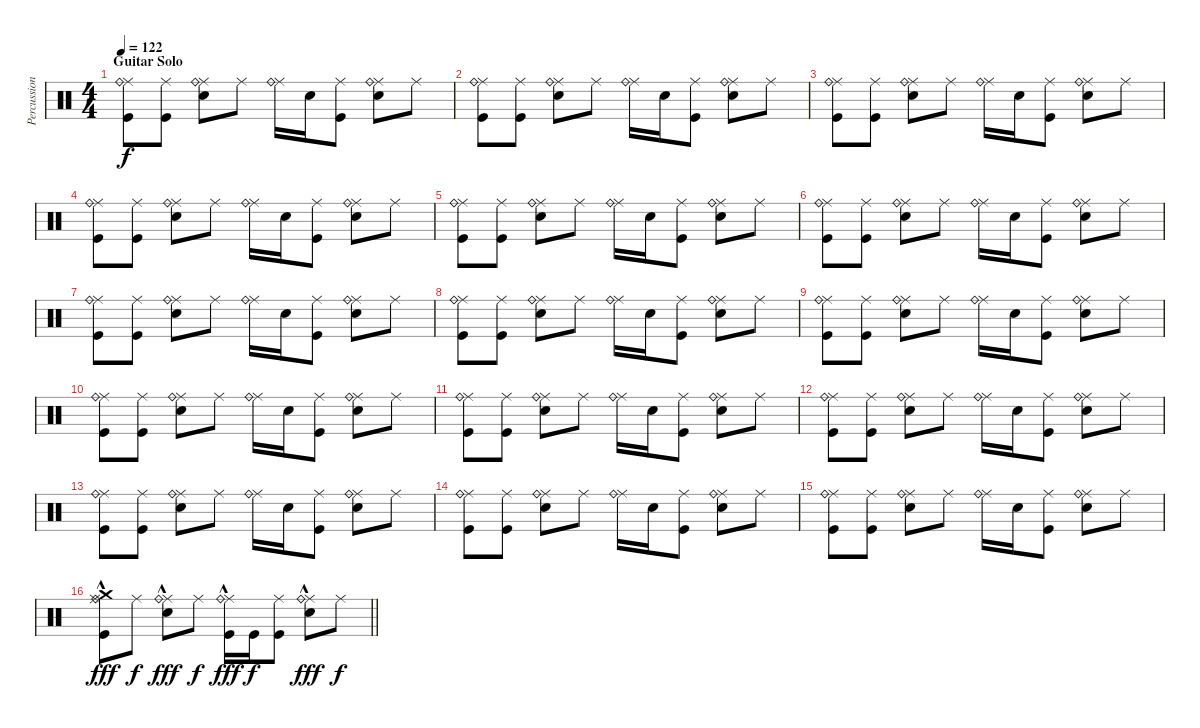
\track ("Percussion" "Percussion") {instrument percussion}
\staff {score}
\articulation defaults
\ts (4 4)
\section ("" "Guitar Solo ")
\tempo 122
\clef neutral
\ks c
("Ride (middle)" "Ride (bell)" "Kick (hit)").8{dy f} ("Ride (middle)" "Kick (hit)").8 ("Ride (middle)" "Ride (bell)" "Snare (hit) 2").8 "Ride (middle)".8 ("Ride (middle)" "Ride (bell)").16 "Snare (hit) 2".16 ("Ride (middle)" "Kick (hit)").8 ("Ride (middle)" "Ride (bell)" "Snare (hit) 2").8 "Ride (middle)".8 |
("Ride (middle)" "Ride (bell)" "Kick (hit)").8 ("Ride (middle)" "Kick (hit)").8 ("Ride (middle)" "Ride (bell)" "Snare (hit) 2").8 "Ride (middle)".8 ("Ride (middle)" "Ride (bell)").16 "Snare (hit) 2".16 ("Ride (middle)" "Kick (hit)").8 ("Ride (middle)" "Ride (bell)" "Snare (hit) 2").8 "Ride (middle)".8 |
("Ride (middle)" "Ride (bell)" "Kick (hit)").8 ("Ride (middle)" "Kick (hit)").8 ("Ride (middle)" "Ride (bell)" "Snare (hit) 2").8 "Ride (middle)".8 ("Ride (middle)" "Ride (bell)").16 "Snare (hit) 2".16 ("Ride (middle)" "Kick (hit)").8 ("Ride (middle)" "Ride (bell)" "Snare (hit) 2").8 "Ride (middle)".8 |
("Ride (middle)" "Ride (bell)" "Kick (hit)").8 ("Ride (middle)" "Kick (hit)").8 ("Ride (middle)" "Ride (bell)" "Snare (hit) 2").8 "Ride (middle)".8 ("Ride (middle)" "Ride (bell)").16 "Snare (hit) 2".16 ("Ride (middle)" "Kick (hit)").8 ("Ride (middle)" "Ride (bell)" "Snare (hit) 2").8 "Ride (middle)".8 |
("Ride (middle)" "Ride (bell)" "Kick (hit)").8 ("Ride (middle)" "Kick (hit)").8 ("Ride (middle)" "Ride (bell)" "Snare (hit) 2").8 "Ride (middle)".8 ("Ride (middle)" "Ride (bell)").16 "Snare (hit) 2".16 ("Ride (middle)" "Kick (hit)").8 ("Ride (middle)" "Ride (bell)" "Snare (hit) 2").8 "Ride (middle)".8 |
("Ride (middle)" "Ride (bell)" "Kick (hit)").8 ("Ride (middle)" "Kick (hit)").8 ("Ride (middle)" "Ride (bell)" "Snare (hit) 2").8 "Ride (middle)".8 ("Ride (middle)" "Ride (bell)").16 "Snare (hit) 2".16 ("Ride (middle)" "Kick (hit)").8 ("Ride (middle)" "Ride (bell)" "Snare (hit) 2").8 "Ride (middle)".8 |
("Ride (middle)" "Ride (bell)" "Kick (hit)").8 ("Ride (middle)" "Kick (hit)").8 ("Ride (middle)" "Ride (bell)" "Snare (hit) 2").8 "Ride (middle)".8 ("Ride (middle)" "Ride (bell)").16 "Snare (hit) 2".16 ("Ride (middle)" "Kick (hit)").8 ("Ride (middle)" "Ride (bell)" "Snare (hit) 2").8 "Ride (middle)".8 |
("Ride (middle)" "Ride (bell)" "Kick (hit)").8 ("Ride (middle)" "Kick (hit)").8 ("Ride (middle)" "Ride (bell)" "Snare (hit) 2").8 "Ride (middle)".8 ("Ride (middle)" "Ride (bell)").16 "Snare (hit) 2".16 ("Ride (middle)" "Kick (hit)").8 ("Ride (middle)" "Ride (bell)" "Snare (hit) 2").8 "Ride (middle)".8 |
("Ride (middle)" "Ride (bell)" "Kick (hit)").8 ("Ride (middle)" "Kick (hit)").8 ("Ride (middle)" "Ride (bell)" "Snare (hit) 2").8 "Ride (middle)".8 ("Ride (middle)" "Ride (bell)").16 "Snare (hit) 2".16 ("Ride (middle)" "Kick (hit)").8 ("Ride (middle)" "Ride (bell)" "Snare (hit) 2").8 "Ride (middle)".8 |
("Ride (middle)" "Ride (bell)" "Kick (hit)").8 ("Ride (middle)" "Kick (hit)").8 ("Ride (middle)" "Ride (bell)" "Snare (hit) 2").8 "Ride (middle)".8 ("Ride (middle)" "Ride (bell)").16 "Snare (hit) 2".16 ("Ride (middle)" "Kick (hit)").8 ("Ride (middle)" "Ride (bell)" "Snare (hit) 2").8 "Ride (middle)".8 |
("Ride (middle)" "Ride (bell)" "Kick (hit)").8 ("Ride (middle)" "Kick (hit)").8 ("Ride (middle)" "Ride (bell)" "Snare (hit) 2").8 "Ride (middle)".8 ("Ride (middle)" "Ride (bell)").16 "Snare (hit) 2".16 ("Ride (middle)" "Kick (hit)").8 ("Ride (middle)" "Ride (bell)" "Snare (hit) 2").8 "Ride (middle)".8 |
("Ride (middle)" "Ride (bell)" "Kick (hit)").8 ("Ride (middle)" "Kick (hit)").8 ("Ride (middle)" "Ride (bell)" "Snare (hit) 2").8 "Ride (middle)".8 ("Ride (middle)" "Ride (bell)").16 "Snare (hit) 2".16 ("Ride (middle)" "Kick (hit)").8 ("Ride (middle)" "Ride (bell)" "Snare (hit) 2").8 "Ride (middle)".8 |
("Ride (middle)" "Ride (bell)" "Kick (hit)").8 ("Ride (middle)" "Kick (hit)").8 ("Ride (middle)" "Ride (bell)" "Snare (hit) 2").8 "Ride (middle)".8 ("Ride (middle)" "Ride (bell)").16 "Snare (hit) 2".16 ("Ride (middle)" "Kick (hit)").8 ("Ride (middle)" "Ride (bell)" "Snare (hit) 2").8 "Ride (middle)".8 |
("Ride (middle)" "Ride (bell)" "Kick (hit)").8 ("Ride (middle)" "Kick (hit)").8 ("Ride (middle)" "Ride (bell)" "Snare (hit) 2").8 "Ride (middle)".8 ("Ride (middle)" "Ride (bell)").16 "Snare (hit) 2".16 ("Ride (middle)" "Kick (hit)").8 ("Ride (middle)" "Ride (bell)" "Snare (hit) 2").8 "Ride (middle)".8 |
("Ride (middle)" "Ride (bell)" "Kick (hit)").8 ("Ride (middle)" "Kick (hit)").8 ("Ride (middle)" "Ride (bell)" "Snare (hit) 2").8 "Ride (middle)".8 ("Ride (middle)" "Ride (bell)").16 "Snare (hit) 2".16 ("Ride (middle)" "Kick (hit)").8 ("Ride (middle)" "Ride (bell)" "Snare (hit) 2").8 "Ride (middle)".8 |
\barLineRight lightlight
("Ride (middle)" "Ride (bell)"{hac} "Crash medium (hit)" "Kick (hit)").8{dy fff} "Ride (middle)".8{dy f} ("Ride (middle)" "Ride (bell)"{hac} "Snare (hit) 2").8{dy fff} "Ride (middle)".8{dy f} ("Ride (middle)" "Ride (bell)"{hac} "Kick (hit)").16{dy fff} "Kick (hit)".16{dy f} ("Ride (middle)" "Kick (hit)").8 ("Ride (middle)" "Ride (bell)"{hac} "Snare (hit) 2").8{dy fff} "Ride (middle)".8{dy f}
